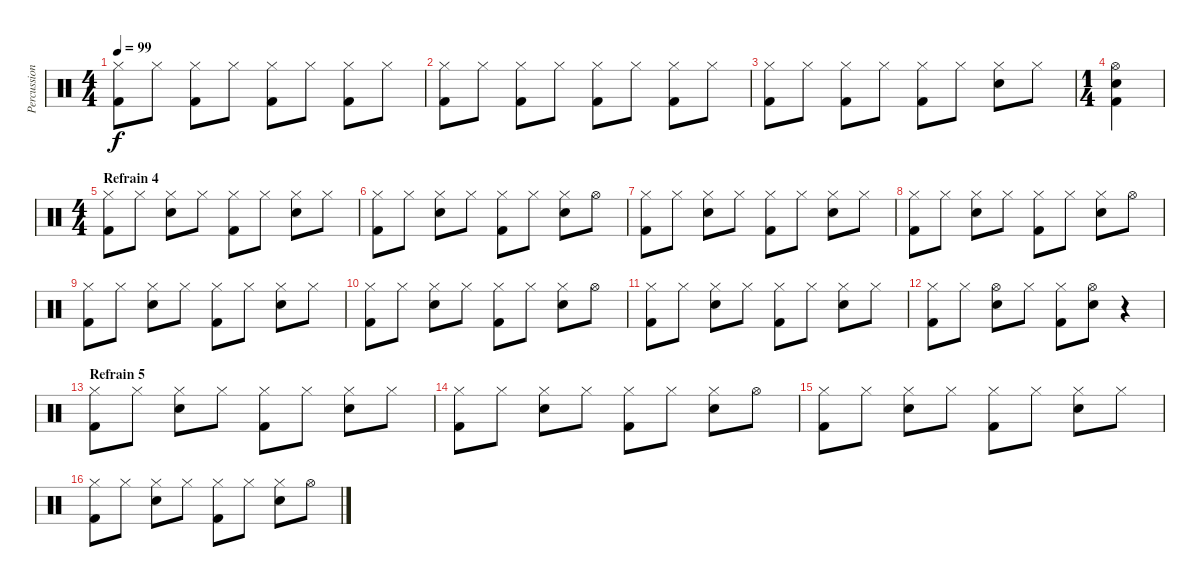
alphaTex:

\track ("Percussions" "Percussion") {instrument percussion}
\staff {score}
\articulation defaults
\ts (4 4)
\tempo 99
\clef neutral
\ks c
("Hi-Hat (closed)" "Kick (hit) 2").8{dy f} "Hi-Hat (closed)".8 ("Hi-Hat (closed)" "Kick (hit) 2").8 "Hi-Hat (closed)".8 ("Hi-Hat (closed)" "Kick (hit) 2").8 "Hi-Hat (closed)".8 ("Hi-Hat (closed)" "Kick (hit) 2").8 "Hi-Hat (closed)".8 |
("Hi-Hat (closed)" "Kick (hit) 2").8 "Hi-Hat (closed)".8 ("Hi-Hat (closed)" "Kick (hit) 2").8 "Hi-Hat (closed)".8 ("Hi-Hat (closed)" "Kick (hit) 2").8 "Hi-Hat (closed)".8 ("Hi-Hat (closed)" "Kick (hit) 2").8 "Hi-Hat (closed)".8 |
("Hi-Hat (closed)" "Kick (hit) 2").8 "Hi-Hat (closed)".8 ("Hi-Hat (closed)" "Kick (hit) 2").8 "Hi-Hat (closed)".8 ("Hi-Hat (closed)" "Kick (hit) 2").8 "Hi-Hat (closed)".8 ("Hi-Hat (closed)" "Electric Snare (hit)").8 "Hi-Hat (closed)".8 |
\ts (1 4)
("Hi-Hat (open)" "Electric Snare (hit)" "Kick (hit) 2").4 |
\ts (4 4)
\section ("" "Refrain 4")
("Hi-Hat (closed)" "Kick (hit) 2").8 "Hi-Hat (closed)".8 ("Hi-Hat (closed)" "Electric Snare (hit)").8 "Hi-Hat (closed)".8 ("Hi-Hat (closed)" "Kick (hit) 2").8 "Hi-Hat (closed)".8 ("Hi-Hat (closed)" "Electric Snare (hit)").8 "Hi-Hat (closed)".8 |
("Hi-Hat (closed)" "Kick (hit) 2").8 "Hi-Hat (closed)".8 ("Hi-Hat (closed)" "Electric Snare (hit)").8 "Hi-Hat (closed)".8 ("Hi-Hat (closed)" "Kick (hit) 2").8 "Hi-Hat (closed)".8 ("Hi-Hat (closed)" "Electric Snare (hit)").8 "Hi-Hat (open)".8 |
("Hi-Hat (closed)" "Kick (hit) 2").8 "Hi-Hat (closed)".8 ("Hi-Hat (closed)" "Electric Snare (hit)").8 "Hi-Hat (closed)".8 ("Hi-Hat (closed)" "Kick (hit) 2").8 "Hi-Hat (closed)".8 ("Hi-Hat (closed)" "Electric Snare (hit)").8 "Hi-Hat (closed)".8 |
("Hi-Hat (closed)" "Kick (hit) 2").8 "Hi-Hat (closed)".8 ("Hi-Hat (closed)" "Electric Snare (hit)").8 "Hi-Hat (closed)".8 ("Hi-Hat (closed)" "Kick (hit) 2").8 "Hi-Hat (closed)".8 ("Hi-Hat (closed)" "Electric Snare (hit)").8 "Hi-Hat (open)".8 |
("Hi-Hat (closed)" "Kick (hit) 2").8 "Hi-Hat (closed)".8 ("Hi-Hat (closed)" "Electric Snare (hit)").8 "Hi-Hat (closed)".8 ("Hi-Hat (closed)" "Kick (hit) 2").8 "Hi-Hat (closed)".8 ("Hi-Hat (closed)" "Electric Snare (hit)").8 "Hi-Hat (closed)".8 |
("Hi-Hat (closed)" "Kick (hit) 2").8 "Hi-Hat (closed)".8 ("Hi-Hat (closed)" "Electric Snare (hit)").8 "Hi-Hat (closed)".8 ("Hi-Hat (closed)" "Kick (hit) 2").8 "Hi-Hat (closed)".8 ("Hi-Hat (closed)" "Electric Snare (hit)").8 "Hi-Hat (open)".8 |
("Hi-Hat (closed)" "Kick (hit) 2").8 "Hi-Hat (closed)".8 ("Hi-Hat (closed)" "Electric Snare (hit)").8 "Hi-Hat (closed)".8 ("Hi-Hat (closed)" "Kick (hit) 2").8 "Hi-Hat (closed)".8 ("Hi-Hat (closed)" "Electric Snare (hit)").8 "Hi-Hat (closed)".8 |
("Hi-Hat (closed)" "Kick (hit) 2").8 "Hi-Hat (closed)".8 ("Hi-Hat (open)" "Electric Snare (hit)").8 "Hi-Hat (closed)".8 ("Hi-Hat (closed)" "Kick (hit) 2").8 ("Hi-Hat (open)" "Electric Snare (hit)").8 r.4 |
\section ("" "Refrain 5")
("Hi-Hat (closed)" "Kick (hit) 2").8 "Hi-Hat (closed)".8 ("Hi-Hat (closed)" "Electric Snare (hit)").8 "Hi-Hat (closed)".8 ("Hi-Hat (closed)" "Kick (hit) 2").8 "Hi-Hat (closed)".8 ("Hi-Hat (closed)" "Electric Snare (hit)").8 "Hi-Hat (closed)".8 |
("Hi-Hat (closed)" "Kick (hit) 2").8 "Hi-Hat (closed)".8 ("Hi-Hat (closed)" "Electric Snare (hit)").8 "Hi-Hat (closed)".8 ("Hi-Hat (closed)" "Kick (hit) 2").8 "Hi-Hat (closed)".8 ("Hi-Hat (closed)" "Electric Snare (hit)").8 "Hi-Hat (open)".8 |
("Hi-Hat (closed)" "Kick (hit) 2").8 "Hi-Hat (closed)".8 ("Hi-Hat (closed)" "Electric Snare (hit)").8 "Hi-Hat (closed)".8 ("Hi-Hat (closed)" "Kick (hit) 2").8 "Hi-Hat (closed)".8 ("Hi-Hat (closed)" "Electric Snare (hit)").8 "Hi-Hat (closed)".8 |
("Hi-Hat (closed)" "Kick (hit) 2").8 "Hi-Hat (closed)".8 ("Hi-Hat (closed)" "Electric Snare (hit)").8 "Hi-Hat (closed)".8 ("Hi-Hat (closed)" "Kick (hit) 2").8 "Hi-Hat (closed)".8 ("Hi-Hat (closed)" "Electric Snare (hit)").8 "Hi-Hat (open)".8
